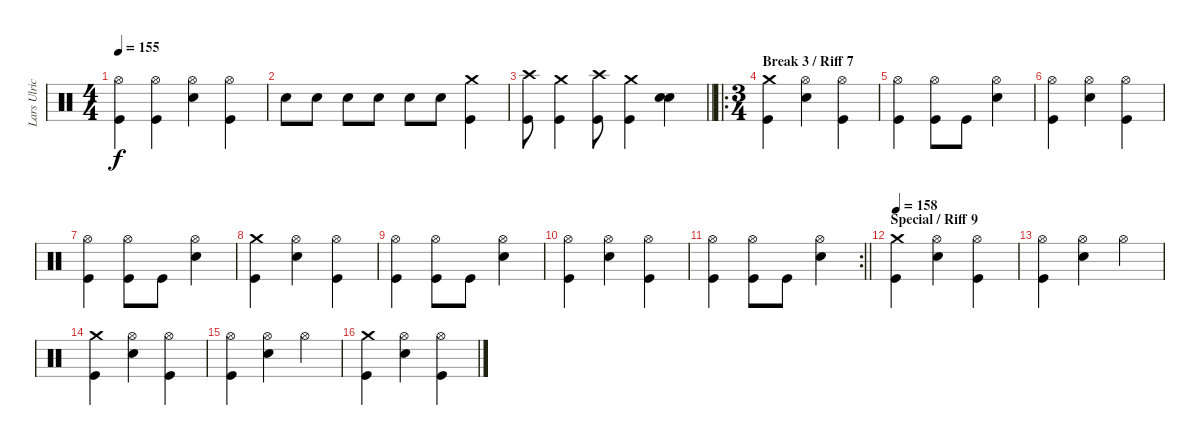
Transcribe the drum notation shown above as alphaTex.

\track ("Lars Ulrich" "Lars Ulric") {instrument percussion}
\staff {score}
\articulation defaults
\ts (4 4)
\tempo 155
\clef neutral
\ks c
("Hi-Hat (open)" "Kick (hit)").4{dy f} ("Hi-Hat (open)" "Kick (hit)").4 ("Hi-Hat (open)" "Snare (hit) 2").4 ("Hi-Hat (open)" "Kick (hit)").4 |
"Snare (hit) 2".8 "Snare (hit) 2".8 "Snare (hit) 2".8 "Snare (hit) 2".8 "Snare (hit) 2".8 "Snare (hit) 2".8 ("Crash medium (hit)" "Kick (hit)").4 |
\barLineRight lightlight
("Crash high (hit)" "Kick (hit)").8 ("Crash medium (hit)" "Kick (hit)").4 ("Crash high (hit)" "Kick (hit)").8 ("Crash medium (hit)" "Kick (hit)").4 ("Snare (hit) 2" "Snare (hit) 2").4{bd 240} |
\ro
\ts (3 4)
\section ("" "Break 3 / Riff 7")
("Crash medium (hit)" "Kick (hit)").4 ("Hi-Hat (open)" "Snare (hit) 2").4 ("Hi-Hat (open)" "Kick (hit)").4 |
("Hi-Hat (open)" "Kick (hit)").4 ("Hi-Hat (open)" "Kick (hit)").8 "Kick (hit)".8 ("Hi-Hat (open)" "Snare (hit) 2").4 |
("Hi-Hat (open)" "Kick (hit)").4 ("Hi-Hat (open)" "Snare (hit) 2").4 ("Hi-Hat (open)" "Kick (hit)").4 |
("Hi-Hat (open)" "Kick (hit)").4 ("Hi-Hat (open)" "Kick (hit)").8 "Kick (hit)".8 ("Hi-Hat (open)" "Snare (hit) 2").4 |
("Crash medium (hit)" "Kick (hit)").4 ("Hi-Hat (open)" "Snare (hit) 2").4 ("Hi-Hat (open)" "Kick (hit)").4 |
("Hi-Hat (open)" "Kick (hit)").4 ("Hi-Hat (open)" "Kick (hit)").8 "Kick (hit)".8 ("Hi-Hat (open)" "Snare (hit) 2").4 |
("Hi-Hat (open)" "Kick (hit)").4 ("Hi-Hat (open)" "Snare (hit) 2").4 ("Hi-Hat (open)" "Kick (hit)").4 |
\rc 2
\barLineRight lightlight
("Hi-Hat (open)" "Kick (hit)").4 ("Hi-Hat (open)" "Kick (hit)").8 "Kick (hit)".8 ("Hi-Hat (open)" "Snare (hit) 2").4 |
\section ("" "Special / Riff 9")
\tempo 158
("Crash medium (hit)" "Kick (hit)").4 ("Hi-Hat (open)" "Snare (hit) 2").4 ("Hi-Hat (open)" "Kick (hit)").4 |
("Hi-Hat (open)" "Kick (hit)").4 ("Hi-Hat (open)" "Snare (hit) 2").4 "Hi-Hat (open)".4 |
("Crash medium (hit)" "Kick (hit)").4 ("Hi-Hat (open)" "Snare (hit) 2").4 ("Hi-Hat (open)" "Kick (hit)").4 |
("Hi-Hat (open)" "Kick (hit)").4 ("Hi-Hat (open)" "Snare (hit) 2").4 "Hi-Hat (open)".4 |
("Crash medium (hit)" "Kick (hit)").4 ("Hi-Hat (open)" "Snare (hit) 2").4 ("Hi-Hat (open)" "Kick (hit)").4
